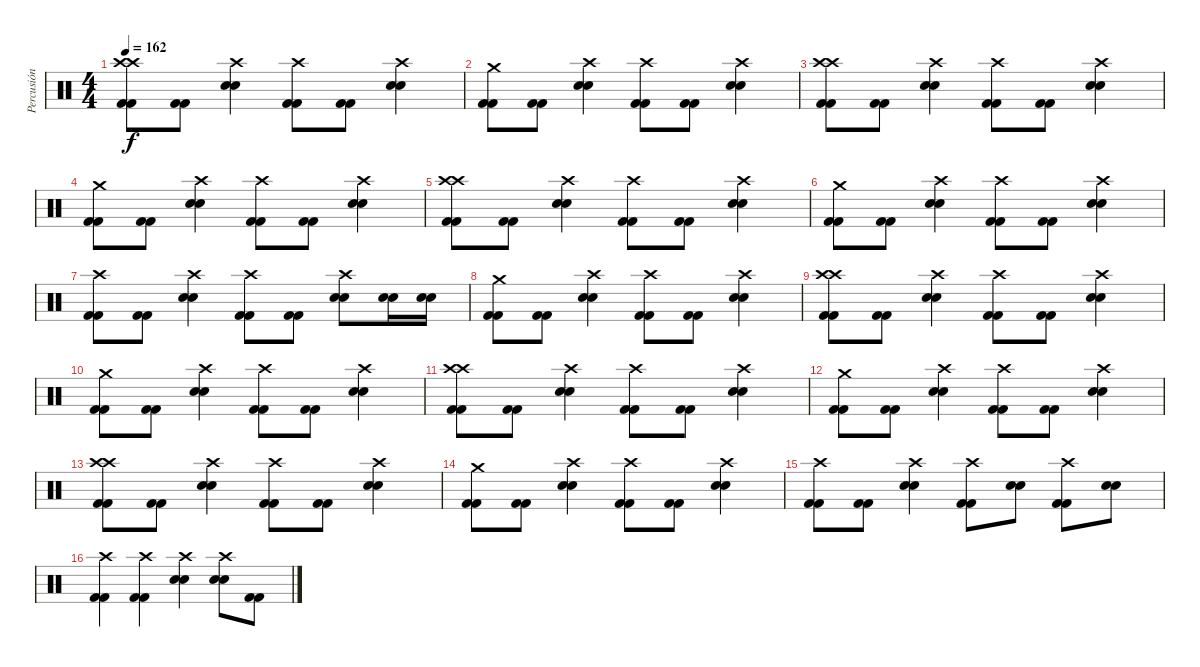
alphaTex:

\track ("Percusión" "Percusión") {instrument percussion}
\staff {score}
\articulation defaults
\ts (4 4)
\tempo 162
\clef neutral
\ks c
("Crash high (hit)" "Crash high (hit)" "Kick (hit) 2" "Kick (hit) 2").8{dy f} ("Kick (hit) 2" "Kick (hit) 2").8 ("Crash high (hit)" "Electric Snare (hit)" "Electric Snare (hit)").4 ("Crash high (hit)" "Kick (hit) 2" "Kick (hit) 2").8 ("Kick (hit) 2" "Kick (hit) 2").8 ("Crash high (hit)" "Electric Snare (hit)" "Electric Snare (hit)").4 |
("Crash medium (hit)" "Kick (hit) 2" "Kick (hit) 2").8 ("Kick (hit) 2" "Kick (hit) 2").8 ("Crash high (hit)" "Electric Snare (hit)" "Electric Snare (hit)").4 ("Crash high (hit)" "Kick (hit) 2" "Kick (hit) 2").8 ("Kick (hit) 2" "Kick (hit) 2").8 ("Crash high (hit)" "Electric Snare (hit)" "Electric Snare (hit)").4 |
("Crash high (hit)" "Crash high (hit)" "Kick (hit) 2" "Kick (hit) 2").8 ("Kick (hit) 2" "Kick (hit) 2").8 ("Crash high (hit)" "Electric Snare (hit)" "Electric Snare (hit)").4 ("Crash high (hit)" "Kick (hit) 2" "Kick (hit) 2").8 ("Kick (hit) 2" "Kick (hit) 2").8 ("Crash high (hit)" "Electric Snare (hit)" "Electric Snare (hit)").4 |
("Crash medium (hit)" "Kick (hit) 2" "Kick (hit) 2").8 ("Kick (hit) 2" "Kick (hit) 2").8 ("Crash high (hit)" "Electric Snare (hit)" "Electric Snare (hit)").4 ("Crash high (hit)" "Kick (hit) 2" "Kick (hit) 2").8 ("Kick (hit) 2" "Kick (hit) 2").8 ("Crash high (hit)" "Electric Snare (hit)" "Electric Snare (hit)").4 |
("Crash high (hit)" "Crash high (hit)" "Kick (hit) 2" "Kick (hit) 2").8 ("Kick (hit) 2" "Kick (hit) 2").8 ("Crash high (hit)" "Electric Snare (hit)" "Electric Snare (hit)").4 ("Crash high (hit)" "Kick (hit) 2" "Kick (hit) 2").8 ("Kick (hit) 2" "Kick (hit) 2").8 ("Crash high (hit)" "Electric Snare (hit)" "Electric Snare (hit)").4 |
("Crash medium (hit)" "Kick (hit) 2" "Kick (hit) 2").8 ("Kick (hit) 2" "Kick (hit) 2").8 ("Crash high (hit)" "Electric Snare (hit)" "Electric Snare (hit)").4 ("Crash high (hit)" "Kick (hit) 2" "Kick (hit) 2").8 ("Kick (hit) 2" "Kick (hit) 2").8 ("Crash high (hit)" "Electric Snare (hit)" "Electric Snare (hit)").4 |
("Crash high (hit)" "Kick (hit) 2" "Kick (hit) 2").8 ("Kick (hit) 2" "Kick (hit) 2").8 ("Crash high (hit)" "Electric Snare (hit)" "Electric Snare (hit)").4 ("Crash high (hit)" "Kick (hit) 2" "Kick (hit) 2").8 ("Kick (hit) 2" "Kick (hit) 2").8 ("Crash high (hit)" "Electric Snare (hit)" "Electric Snare (hit)").8 ("Electric Snare (hit)" "Electric Snare (hit)").16 ("Electric Snare (hit)" "Electric Snare (hit)").16 |
("Crash medium (hit)" "Kick (hit) 2" "Kick (hit) 2").8 ("Kick (hit) 2" "Kick (hit) 2").8 ("Crash high (hit)" "Electric Snare (hit)" "Electric Snare (hit)").4 ("Crash high (hit)" "Kick (hit) 2" "Kick (hit) 2").8 ("Kick (hit) 2" "Kick (hit) 2").8 ("Crash high (hit)" "Electric Snare (hit)" "Electric Snare (hit)").4 |
("Crash high (hit)" "Crash high (hit)" "Kick (hit) 2" "Kick (hit) 2").8 ("Kick (hit) 2" "Kick (hit) 2").8 ("Crash high (hit)" "Electric Snare (hit)" "Electric Snare (hit)").4 ("Crash high (hit)" "Kick (hit) 2" "Kick (hit) 2").8 ("Kick (hit) 2" "Kick (hit) 2").8 ("Crash high (hit)" "Electric Snare (hit)" "Electric Snare (hit)").4 |
("Crash medium (hit)" "Kick (hit) 2" "Kick (hit) 2").8 ("Kick (hit) 2" "Kick (hit) 2").8 ("Crash high (hit)" "Electric Snare (hit)" "Electric Snare (hit)").4 ("Crash high (hit)" "Kick (hit) 2" "Kick (hit) 2").8 ("Kick (hit) 2" "Kick (hit) 2").8 ("Crash high (hit)" "Electric Snare (hit)" "Electric Snare (hit)").4 |
("Crash high (hit)" "Crash high (hit)" "Kick (hit) 2" "Kick (hit) 2").8 ("Kick (hit) 2" "Kick (hit) 2").8 ("Crash high (hit)" "Electric Snare (hit)" "Electric Snare (hit)").4 ("Crash high (hit)" "Kick (hit) 2" "Kick (hit) 2").8 ("Kick (hit) 2" "Kick (hit) 2").8 ("Crash high (hit)" "Electric Snare (hit)" "Electric Snare (hit)").4 |
("Crash medium (hit)" "Kick (hit) 2" "Kick (hit) 2").8 ("Kick (hit) 2" "Kick (hit) 2").8 ("Crash high (hit)" "Electric Snare (hit)" "Electric Snare (hit)").4 ("Crash high (hit)" "Kick (hit) 2" "Kick (hit) 2").8 ("Kick (hit) 2" "Kick (hit) 2").8 ("Crash high (hit)" "Electric Snare (hit)" "Electric Snare (hit)").4 |
("Crash high (hit)" "Crash high (hit)" "Kick (hit) 2" "Kick (hit) 2").8 ("Kick (hit) 2" "Kick (hit) 2").8 ("Crash high (hit)" "Electric Snare (hit)" "Electric Snare (hit)").4 ("Crash high (hit)" "Kick (hit) 2" "Kick (hit) 2").8 ("Kick (hit) 2" "Kick (hit) 2").8 ("Crash high (hit)" "Electric Snare (hit)" "Electric Snare (hit)").4 |
("Crash medium (hit)" "Kick (hit) 2" "Kick (hit) 2").8 ("Kick (hit) 2" "Kick (hit) 2").8 ("Crash high (hit)" "Electric Snare (hit)" "Electric Snare (hit)").4 ("Crash high (hit)" "Kick (hit) 2" "Kick (hit) 2").8 ("Kick (hit) 2" "Kick (hit) 2").8 ("Crash high (hit)" "Electric Snare (hit)" "Electric Snare (hit)").4 |
("Crash high (hit)" "Kick (hit) 2" "Kick (hit) 2").8 ("Kick (hit) 2" "Kick (hit) 2").8 ("Crash high (hit)" "Electric Snare (hit)" "Electric Snare (hit)").4 ("Crash high (hit)" "Kick (hit) 2" "Kick (hit) 2").8 ("Electric Snare (hit)" "Electric Snare (hit)").8 ("Crash high (hit)" "Kick (hit) 2" "Kick (hit) 2").8 ("Electric Snare (hit)" "Electric Snare (hit)").8 |
("Crash high (hit)" "Kick (hit) 2" "Kick (hit) 2").4 ("Crash high (hit)" "Kick (hit) 2" "Kick (hit) 2").4 ("Crash high (hit)" "Electric Snare (hit)" "Electric Snare (hit)").4 ("Crash high (hit)" "Electric Snare (hit)" "Electric Snare (hit)").8 ("Kick (hit) 2" "Kick (hit) 2").8
